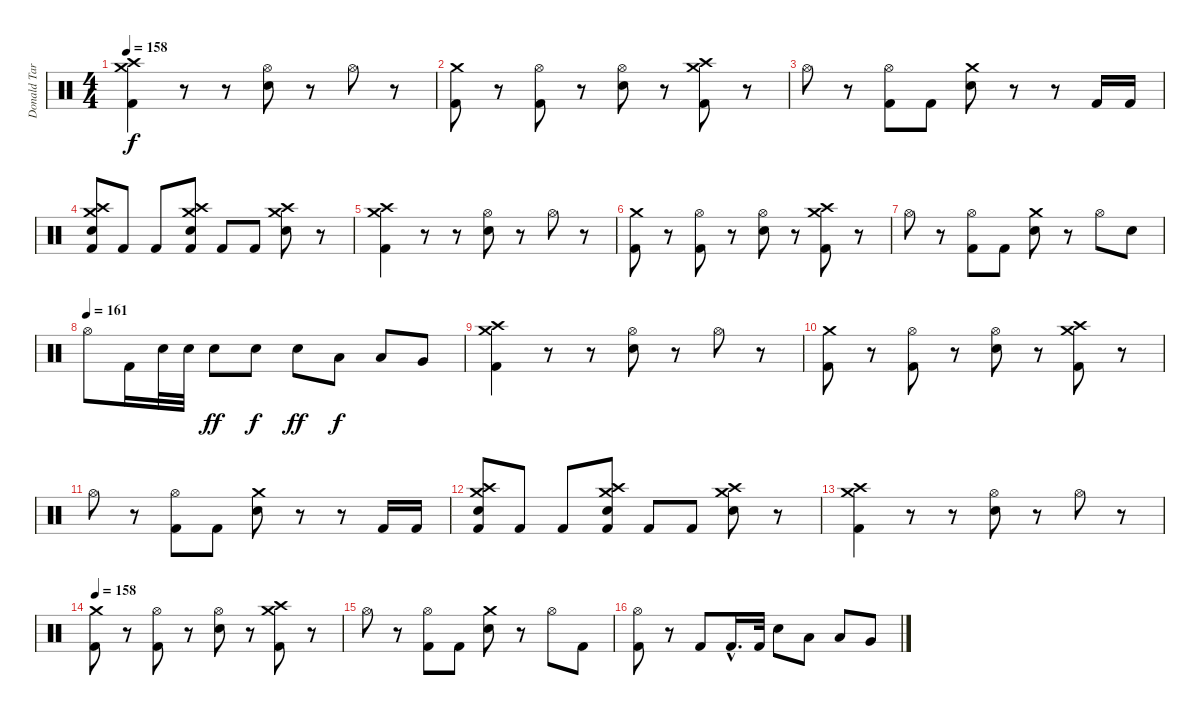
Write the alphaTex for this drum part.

\track ("Donald Tardy (Drums)" "Donald Tar") {instrument percussion}
\staff {score}
\articulation defaults
\ts (4 4)
\tempo 158
\clef neutral
\ks c
("Kick (hit) 2" "Crash medium (hit)" "Crash high (hit)").4{dy f} r.8 r.8 ("Electric Snare (hit)" "Hi-Hat (open)").8 r.8 "Hi-Hat (open)".8 r.8 |
("Kick (hit) 2" "Crash medium (hit)").8 r.8 ("Kick (hit) 2" "Hi-Hat (open)").8 r.8 ("Electric Snare (hit)" "Hi-Hat (open)").8 r.8 ("Kick (hit) 2" "Crash medium (hit)" "Crash high (hit)").8 r.8 |
"Hi-Hat (open)".8 r.8 ("Kick (hit) 2" "Hi-Hat (open)").8 "Kick (hit) 2".8 ("Electric Snare (hit)" "Crash medium (hit)").8 r.8 r.8 "Kick (hit) 2".16 "Kick (hit) 2".16 |
("Kick (hit) 2" "Electric Snare (hit)" "Crash medium (hit)" "Crash high (hit)").8 "Kick (hit) 2".8 "Kick (hit) 2".8 ("Kick (hit) 2" "Electric Snare (hit)" "Crash medium (hit)" "Crash high (hit)").8 "Kick (hit) 2".8 "Kick (hit) 2".8 ("Electric Snare (hit)" "Crash high (hit)" "Crash medium (hit)").8 r.8 |
("Kick (hit) 2" "Crash medium (hit)" "Crash high (hit)").4 r.8 r.8 ("Electric Snare (hit)" "Hi-Hat (open)").8 r.8 "Hi-Hat (open)".8 r.8 |
("Kick (hit) 2" "Crash medium (hit)").8 r.8 ("Kick (hit) 2" "Hi-Hat (open)").8 r.8 ("Electric Snare (hit)" "Hi-Hat (open)").8 r.8 ("Kick (hit) 2" "Crash medium (hit)" "Crash high (hit)").8 r.8 |
"Hi-Hat (open)".8 r.8 ("Kick (hit) 2" "Hi-Hat (open)").8 "Kick (hit) 2".8 ("Electric Snare (hit)" "Crash medium (hit)").8 r.8 "Hi-Hat (open)".8 "Electric Snare (hit)".8 |
\tempo (161)
"Hi-Hat (open)".8 "Kick (hit) 2".16 "Electric Snare (hit)".32 "Electric Snare (hit)".32 "Electric Snare (hit)".8{dy ff} "Electric Snare (hit)".8{dy f} "Electric Snare (hit)".8{dy ff} "Low Tom (hit)".8{dy f} "Low Tom (hit)".8 "Very Low Tom (hit)".8 |
("Kick (hit) 2" "Crash medium (hit)" "Crash high (hit)").4 r.8 r.8 ("Electric Snare (hit)" "Hi-Hat (open)").8 r.8 "Hi-Hat (open)".8 r.8 |
("Kick (hit) 2" "Crash medium (hit)").8 r.8 ("Kick (hit) 2" "Hi-Hat (open)").8 r.8 ("Electric Snare (hit)" "Hi-Hat (open)").8 r.8 ("Kick (hit) 2" "Crash medium (hit)" "Crash high (hit)").8 r.8 |
"Hi-Hat (open)".8 r.8 ("Kick (hit) 2" "Hi-Hat (open)").8 "Kick (hit) 2".8 ("Electric Snare (hit)" "Crash medium (hit)").8 r.8 r.8 "Kick (hit) 2".16 "Kick (hit) 2".16 |
("Kick (hit) 2" "Electric Snare (hit)" "Crash medium (hit)" "Crash high (hit)").8 "Kick (hit) 2".8 "Kick (hit) 2".8 ("Kick (hit) 2" "Electric Snare (hit)" "Crash medium (hit)" "Crash high (hit)").8 "Kick (hit) 2".8 "Kick (hit) 2".8 ("Electric Snare (hit)" "Crash high (hit)" "Crash medium (hit)").8 r.8 |
("Kick (hit) 2" "Crash medium (hit)" "Crash high (hit)").4 r.8 r.8 ("Electric Snare (hit)" "Hi-Hat (open)").8 r.8 "Hi-Hat (open)".8 r.8 |
\tempo 158
("Kick (hit) 2" "Crash medium (hit)").8 r.8 ("Kick (hit) 2" "Hi-Hat (open)").8 r.8 ("Electric Snare (hit)" "Hi-Hat (open)").8 r.8 ("Kick (hit) 2" "Crash medium (hit)" "Crash high (hit)").8 r.8 |
"Hi-Hat (open)".8 r.8 ("Kick (hit) 2" "Hi-Hat (open)").8 "Kick (hit) 2".8 ("Electric Snare (hit)" "Crash medium (hit)").8 r.8 "Hi-Hat (open)".8 "Kick (hit) 2".8 |
("Kick (hit) 2" "Hi-Hat (open)").8 r.8 "Kick (hit) 2".8 "Kick (hit) 2"{hac}.16{d} "Kick (hit) 2".32 "Electric Snare (hit)".8 "Low Tom (hit)".8 "Low Tom (hit)".8 "Very Low Tom (hit)".8
